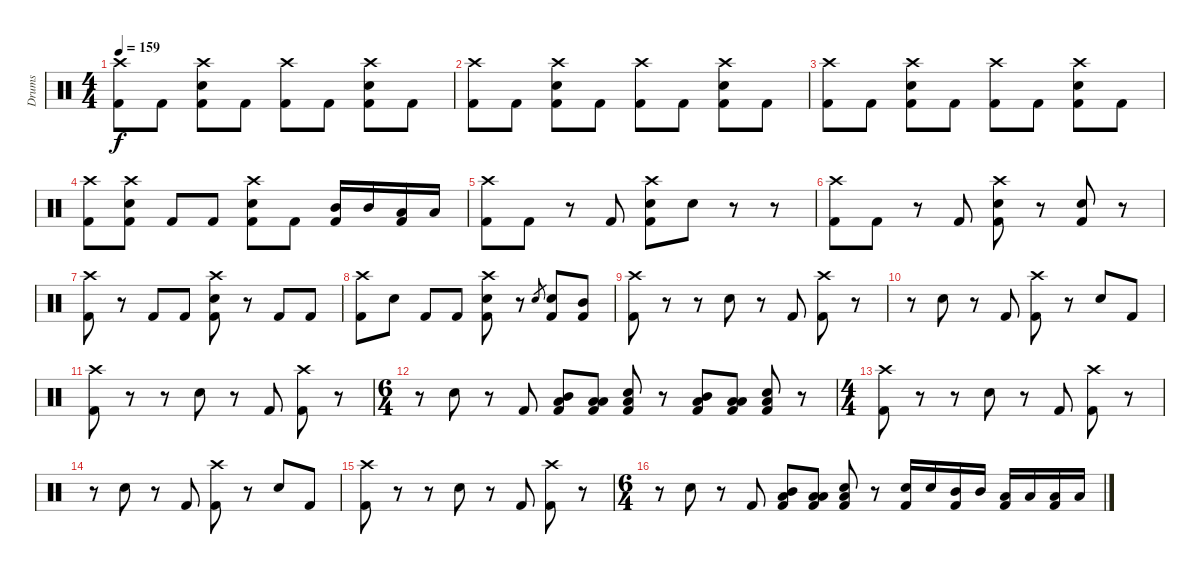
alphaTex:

\track ("Drums" "Drums") {instrument percussion}
\staff {score}
\articulation defaults
\ts (4 4)
\tempo 159
\clef neutral
\ks c
("Crash high (hit)" "Kick (hit) 2").8{dy f} "Kick (hit) 2".8 ("Crash high (hit)" "Electric Snare (hit)" "Kick (hit) 2").8 "Kick (hit) 2".8 ("Crash high (hit)" "Kick (hit) 2").8 "Kick (hit) 2".8 ("Crash high (hit)" "Electric Snare (hit)" "Kick (hit) 2").8 "Kick (hit) 2".8 |
("Crash high (hit)" "Kick (hit) 2").8 "Kick (hit) 2".8 ("Crash high (hit)" "Electric Snare (hit)" "Kick (hit) 2").8 "Kick (hit) 2".8 ("Crash high (hit)" "Kick (hit) 2").8 "Kick (hit) 2".8 ("Crash high (hit)" "Electric Snare (hit)" "Kick (hit) 2").8 "Kick (hit) 2".8 |
("Crash high (hit)" "Kick (hit) 2").8 "Kick (hit) 2".8 ("Crash high (hit)" "Electric Snare (hit)" "Kick (hit) 2").8 "Kick (hit) 2".8 ("Crash high (hit)" "Kick (hit) 2").8 "Kick (hit) 2".8 ("Crash high (hit)" "Electric Snare (hit)" "Kick (hit) 2").8 "Kick (hit) 2".8 |
("Crash high (hit)" "Kick (hit) 2").8 ("Crash high (hit)" "Electric Snare (hit)" "Kick (hit) 2").8 "Kick (hit) 2".8 "Kick (hit) 2".8 ("Crash high (hit)" "Electric Snare (hit)" "Kick (hit) 2").8 "Kick (hit) 2".8 ("Mid Tom (hit)" "Kick (hit) 2").16 "Mid Tom (hit)".16 ("Low Tom (hit)" "Kick (hit) 2").16 "Low Tom (hit)".16 |
("Crash high (hit)" "Kick (hit) 2").8 "Kick (hit) 2".8 r.8 "Kick (hit) 2".8 ("Crash high (hit)" "Electric Snare (hit)" "Kick (hit) 2").8 "Electric Snare (hit)".8 r.8 r.8 |
("Crash high (hit)" "Kick (hit) 2").8 "Kick (hit) 2".8 r.8 "Kick (hit) 2".8 ("Crash high (hit)" "Electric Snare (hit)" "Kick (hit) 2").8 r.8 ("Electric Snare (hit)" "Kick (hit) 2").8 r.8 |
("Crash high (hit)" "Kick (hit) 2").8 r.8 "Kick (hit) 2".8 "Kick (hit) 2".8 ("Crash high (hit)" "Electric Snare (hit)" "Kick (hit) 2").8 r.8 "Kick (hit) 2".8 "Kick (hit) 2".8 |
("Crash high (hit)" "Kick (hit) 2").8 "Electric Snare (hit)".8 "Kick (hit) 2".8 "Kick (hit) 2".8 ("Crash high (hit)" "Electric Snare (hit)" "Kick (hit) 2").8 r.8 "Electric Snare (hit)".8{gr} ("Electric Snare (hit)" "Kick (hit) 2").8 ("Mid Tom (hit)" "Kick (hit) 2").8 |
("Crash high (hit)" "Kick (hit) 2").8 r.8 r.8 "Electric Snare (hit)".8 r.8 "Kick (hit) 2".8 ("Crash high (hit)" "Kick (hit) 2").8 r.8 |
r.8 "Electric Snare (hit)".8 r.8 "Kick (hit) 2".8 ("Crash high (hit)" "Kick (hit) 2").8 r.8 "Electric Snare (hit)".8 "Kick (hit) 2".8 |
("Crash high (hit)" "Kick (hit) 2").8 r.8 r.8 "Electric Snare (hit)".8 r.8 "Kick (hit) 2".8 ("Crash high (hit)" "Kick (hit) 2").8 r.8 |
\ts (6 4)
r.8 "Electric Snare (hit)".8 r.8 "Kick (hit) 2".8 ("Mid Tom (hit)" "Low Floor Tom (hit)" "Kick (hit) 2").8 ("Low Tom (hit)" "Low Floor Tom (hit)" "Kick (hit) 2").8 ("Low Floor Tom (hit)" "Electric Snare (hit)" "Kick (hit) 2").8 r.8 ("Mid Tom (hit)" "Low Floor Tom (hit)" "Kick (hit) 2").8 ("Low Tom (hit)" "Low Floor Tom (hit)" "Kick (hit) 2").8 ("Low Floor Tom (hit)" "Electric Snare (hit)" "Kick (hit) 2").8 r.8 |
\ts (4 4)
("Crash high (hit)" "Kick (hit) 2").8 r.8 r.8 "Electric Snare (hit)".8 r.8 "Kick (hit) 2".8 ("Crash high (hit)" "Kick (hit) 2").8 r.8 |
r.8 "Electric Snare (hit)".8 r.8 "Kick (hit) 2".8 ("Crash high (hit)" "Kick (hit) 2").8 r.8 "Electric Snare (hit)".8 "Kick (hit) 2".8 |
("Crash high (hit)" "Kick (hit) 2").8 r.8 r.8 "Electric Snare (hit)".8 r.8 "Kick (hit) 2".8 ("Crash high (hit)" "Kick (hit) 2").8 r.8 |
\ts (6 4)
r.8 "Electric Snare (hit)".8 r.8 "Kick (hit) 2".8 ("Mid Tom (hit)" "Low Floor Tom (hit)" "Kick (hit) 2").8 ("Low Tom (hit)" "Low Floor Tom (hit)" "Kick (hit) 2").8 ("Low Floor Tom (hit)" "Electric Snare (hit)" "Kick (hit) 2").8 r.8 ("Electric Snare (hit)" "Kick (hit) 2").16 "Electric Snare (hit)".16 ("Mid Tom (hit)" "Kick (hit) 2").16 "Mid Tom (hit)".16 ("Low Tom (hit)" "Kick (hit) 2").16 "Low Tom (hit)".16 ("Low Floor Tom (hit)" "Kick (hit) 2").16 "Low Floor Tom (hit)".16
